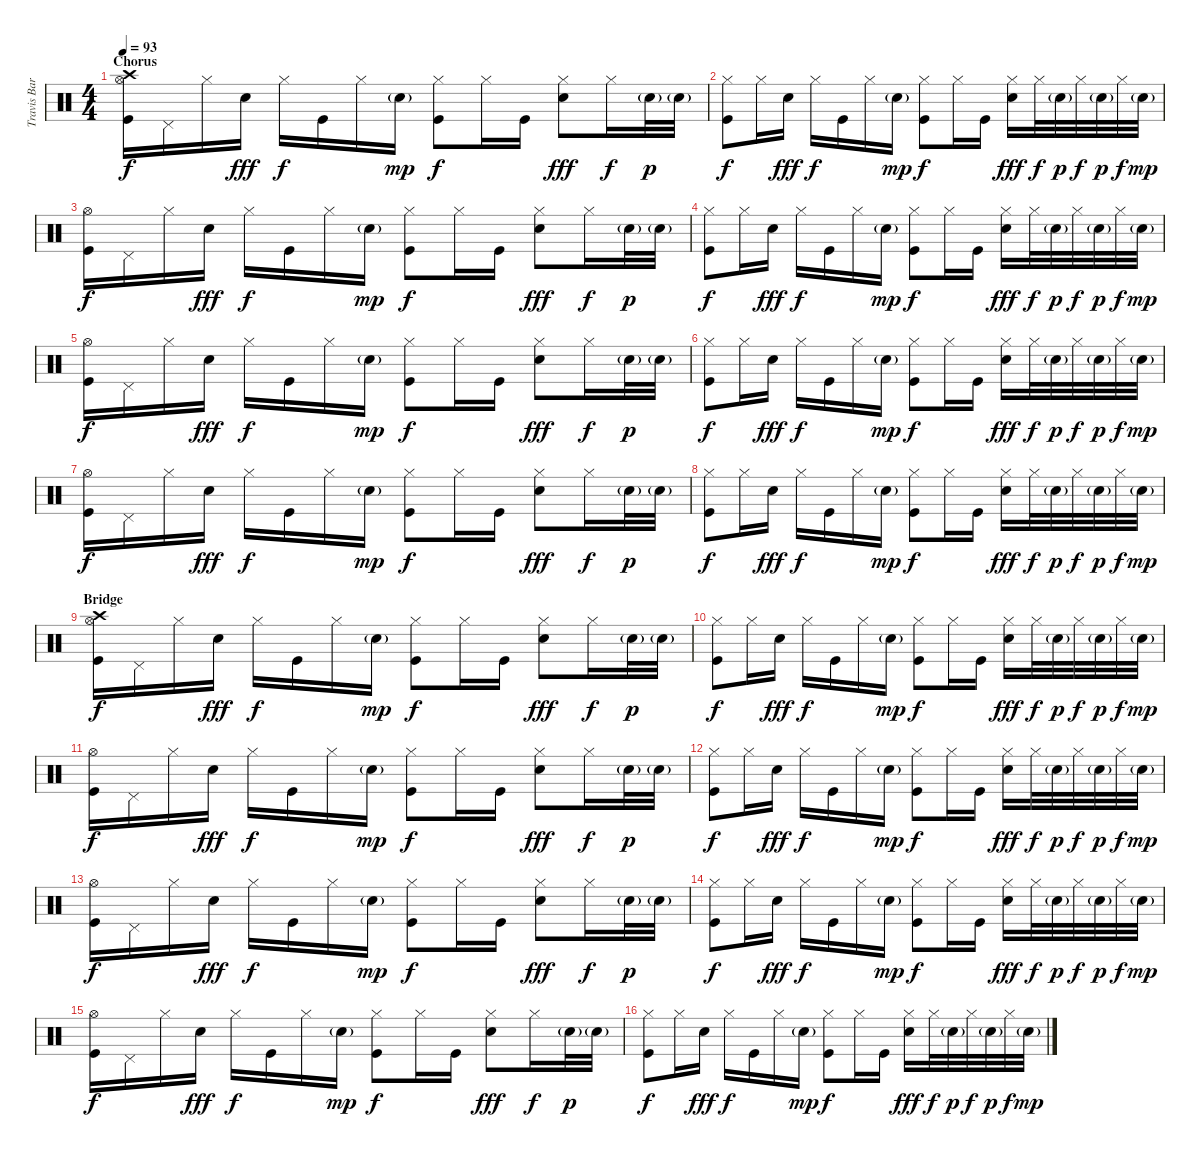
\track ("Travis Barker" "Travis Bar") {instrument percussion}
\staff {score}
\articulation defaults
\ts (4 4)
\section ("" "Chorus")
\tempo 93
\clef neutral
\ks c
("Hi-Hat (open)" "Crash high (hit)" "Kick (hit)").16{dy f} "Pedal Hi-Hat (hit)".16 "Hi-Hat (closed)".16 "Electric Snare (hit)".16{dy fff} "Hi-Hat (closed)".16{dy f} "Kick (hit)".16 "Hi-Hat (closed)".16 "Electric Snare (hit)"{g}.16{dy mp} ("Hi-Hat (closed)" "Kick (hit)").8{dy f} "Hi-Hat (closed)".16 "Kick (hit)".16 ("Hi-Hat (closed)" "Electric Snare (hit)").8{dy fff} "Hi-Hat (closed)".16{dy f} "Electric Snare (hit)"{g}.32{dy p} "Electric Snare (hit)"{g}.32 |
("Hi-Hat (closed)" "Kick (hit)").8{dy f} "Hi-Hat (closed)".16 "Electric Snare (hit)".16{dy fff} "Hi-Hat (closed)".16{dy f} "Kick (hit)".16 "Hi-Hat (closed)".16 "Electric Snare (hit)"{g}.16{dy mp} ("Hi-Hat (closed)" "Kick (hit)").8{dy f} "Hi-Hat (closed)".16 "Kick (hit)".16 ("Hi-Hat (closed)" "Electric Snare (hit)").16{dy fff} "Hi-Hat (closed)".32{dy f} "Electric Snare (hit)"{g}.32{dy p} "Hi-Hat (closed)".32{dy f} "Electric Snare (hit)"{g}.32{dy p} "Hi-Hat (closed)".32{dy f} "Electric Snare (hit)"{g}.32{dy mp} |
("Hi-Hat (open)" "Kick (hit)").16{dy f} "Pedal Hi-Hat (hit)".16 "Hi-Hat (closed)".16 "Electric Snare (hit)".16{dy fff} "Hi-Hat (closed)".16{dy f} "Kick (hit)".16 "Hi-Hat (closed)".16 "Electric Snare (hit)"{g}.16{dy mp} ("Hi-Hat (closed)" "Kick (hit)").8{dy f} "Hi-Hat (closed)".16 "Kick (hit)".16 ("Hi-Hat (closed)" "Electric Snare (hit)").8{dy fff} "Hi-Hat (closed)".16{dy f} "Electric Snare (hit)"{g}.32{dy p} "Electric Snare (hit)"{g}.32 |
("Hi-Hat (closed)" "Kick (hit)").8{dy f} "Hi-Hat (closed)".16 "Electric Snare (hit)".16{dy fff} "Hi-Hat (closed)".16{dy f} "Kick (hit)".16 "Hi-Hat (closed)".16 "Electric Snare (hit)"{g}.16{dy mp} ("Hi-Hat (closed)" "Kick (hit)").8{dy f} "Hi-Hat (closed)".16 "Kick (hit)".16 ("Hi-Hat (closed)" "Electric Snare (hit)").16{dy fff} "Hi-Hat (closed)".32{dy f} "Electric Snare (hit)"{g}.32{dy p} "Hi-Hat (closed)".32{dy f} "Electric Snare (hit)"{g}.32{dy p} "Hi-Hat (closed)".32{dy f} "Electric Snare (hit)"{g}.32{dy mp} |
("Hi-Hat (open)" "Kick (hit)").16{dy f} "Pedal Hi-Hat (hit)".16 "Hi-Hat (closed)".16 "Electric Snare (hit)".16{dy fff} "Hi-Hat (closed)".16{dy f} "Kick (hit)".16 "Hi-Hat (closed)".16 "Electric Snare (hit)"{g}.16{dy mp} ("Hi-Hat (closed)" "Kick (hit)").8{dy f} "Hi-Hat (closed)".16 "Kick (hit)".16 ("Hi-Hat (closed)" "Electric Snare (hit)").8{dy fff} "Hi-Hat (closed)".16{dy f} "Electric Snare (hit)"{g}.32{dy p} "Electric Snare (hit)"{g}.32 |
("Hi-Hat (closed)" "Kick (hit)").8{dy f} "Hi-Hat (closed)".16 "Electric Snare (hit)".16{dy fff} "Hi-Hat (closed)".16{dy f} "Kick (hit)".16 "Hi-Hat (closed)".16 "Electric Snare (hit)"{g}.16{dy mp} ("Hi-Hat (closed)" "Kick (hit)").8{dy f} "Hi-Hat (closed)".16 "Kick (hit)".16 ("Hi-Hat (closed)" "Electric Snare (hit)").16{dy fff} "Hi-Hat (closed)".32{dy f} "Electric Snare (hit)"{g}.32{dy p} "Hi-Hat (closed)".32{dy f} "Electric Snare (hit)"{g}.32{dy p} "Hi-Hat (closed)".32{dy f} "Electric Snare (hit)"{g}.32{dy mp} |
("Hi-Hat (open)" "Kick (hit)").16{dy f} "Pedal Hi-Hat (hit)".16 "Hi-Hat (closed)".16 "Electric Snare (hit)".16{dy fff} "Hi-Hat (closed)".16{dy f} "Kick (hit)".16 "Hi-Hat (closed)".16 "Electric Snare (hit)"{g}.16{dy mp} ("Hi-Hat (closed)" "Kick (hit)").8{dy f} "Hi-Hat (closed)".16 "Kick (hit)".16 ("Hi-Hat (closed)" "Electric Snare (hit)").8{dy fff} "Hi-Hat (closed)".16{dy f} "Electric Snare (hit)"{g}.32{dy p} "Electric Snare (hit)"{g}.32 |
("Hi-Hat (closed)" "Kick (hit)").8{dy f} "Hi-Hat (closed)".16 "Electric Snare (hit)".16{dy fff} "Hi-Hat (closed)".16{dy f} "Kick (hit)".16 "Hi-Hat (closed)".16 "Electric Snare (hit)"{g}.16{dy mp} ("Hi-Hat (closed)" "Kick (hit)").8{dy f} "Hi-Hat (closed)".16 "Kick (hit)".16 ("Hi-Hat (closed)" "Electric Snare (hit)").16{dy fff} "Hi-Hat (closed)".32{dy f} "Electric Snare (hit)"{g}.32{dy p} "Hi-Hat (closed)".32{dy f} "Electric Snare (hit)"{g}.32{dy p} "Hi-Hat (closed)".32{dy f} "Electric Snare (hit)"{g}.32{dy mp} |
\section ("" "Bridge")
("Hi-Hat (open)" "Crash high (hit)" "Kick (hit)").16{dy f} "Pedal Hi-Hat (hit)".16 "Hi-Hat (closed)".16 "Electric Snare (hit)".16{dy fff} "Hi-Hat (closed)".16{dy f} "Kick (hit)".16 "Hi-Hat (closed)".16 "Electric Snare (hit)"{g}.16{dy mp} ("Hi-Hat (closed)" "Kick (hit)").8{dy f} "Hi-Hat (closed)".16 "Kick (hit)".16 ("Hi-Hat (closed)" "Electric Snare (hit)").8{dy fff} "Hi-Hat (closed)".16{dy f} "Electric Snare (hit)"{g}.32{dy p} "Electric Snare (hit)"{g}.32 |
("Hi-Hat (closed)" "Kick (hit)").8{dy f} "Hi-Hat (closed)".16 "Electric Snare (hit)".16{dy fff} "Hi-Hat (closed)".16{dy f} "Kick (hit)".16 "Hi-Hat (closed)".16 "Electric Snare (hit)"{g}.16{dy mp} ("Hi-Hat (closed)" "Kick (hit)").8{dy f} "Hi-Hat (closed)".16 "Kick (hit)".16 ("Hi-Hat (closed)" "Electric Snare (hit)").16{dy fff} "Hi-Hat (closed)".32{dy f} "Electric Snare (hit)"{g}.32{dy p} "Hi-Hat (closed)".32{dy f} "Electric Snare (hit)"{g}.32{dy p} "Hi-Hat (closed)".32{dy f} "Electric Snare (hit)"{g}.32{dy mp} |
("Hi-Hat (open)" "Kick (hit)").16{dy f} "Pedal Hi-Hat (hit)".16 "Hi-Hat (closed)".16 "Electric Snare (hit)".16{dy fff} "Hi-Hat (closed)".16{dy f} "Kick (hit)".16 "Hi-Hat (closed)".16 "Electric Snare (hit)"{g}.16{dy mp} ("Hi-Hat (closed)" "Kick (hit)").8{dy f} "Hi-Hat (closed)".16 "Kick (hit)".16 ("Hi-Hat (closed)" "Electric Snare (hit)").8{dy fff} "Hi-Hat (closed)".16{dy f} "Electric Snare (hit)"{g}.32{dy p} "Electric Snare (hit)"{g}.32 |
("Hi-Hat (closed)" "Kick (hit)").8{dy f} "Hi-Hat (closed)".16 "Electric Snare (hit)".16{dy fff} "Hi-Hat (closed)".16{dy f} "Kick (hit)".16 "Hi-Hat (closed)".16 "Electric Snare (hit)"{g}.16{dy mp} ("Hi-Hat (closed)" "Kick (hit)").8{dy f} "Hi-Hat (closed)".16 "Kick (hit)".16 ("Hi-Hat (closed)" "Electric Snare (hit)").16{dy fff} "Hi-Hat (closed)".32{dy f} "Electric Snare (hit)"{g}.32{dy p} "Hi-Hat (closed)".32{dy f} "Electric Snare (hit)"{g}.32{dy p} "Hi-Hat (closed)".32{dy f} "Electric Snare (hit)"{g}.32{dy mp} |
("Hi-Hat (open)" "Kick (hit)").16{dy f} "Pedal Hi-Hat (hit)".16 "Hi-Hat (closed)".16 "Electric Snare (hit)".16{dy fff} "Hi-Hat (closed)".16{dy f} "Kick (hit)".16 "Hi-Hat (closed)".16 "Electric Snare (hit)"{g}.16{dy mp} ("Hi-Hat (closed)" "Kick (hit)").8{dy f} "Hi-Hat (closed)".16 "Kick (hit)".16 ("Hi-Hat (closed)" "Electric Snare (hit)").8{dy fff} "Hi-Hat (closed)".16{dy f} "Electric Snare (hit)"{g}.32{dy p} "Electric Snare (hit)"{g}.32 |
("Hi-Hat (closed)" "Kick (hit)").8{dy f} "Hi-Hat (closed)".16 "Electric Snare (hit)".16{dy fff} "Hi-Hat (closed)".16{dy f} "Kick (hit)".16 "Hi-Hat (closed)".16 "Electric Snare (hit)"{g}.16{dy mp} ("Hi-Hat (closed)" "Kick (hit)").8{dy f} "Hi-Hat (closed)".16 "Kick (hit)".16 ("Hi-Hat (closed)" "Electric Snare (hit)").16{dy fff} "Hi-Hat (closed)".32{dy f} "Electric Snare (hit)"{g}.32{dy p} "Hi-Hat (closed)".32{dy f} "Electric Snare (hit)"{g}.32{dy p} "Hi-Hat (closed)".32{dy f} "Electric Snare (hit)"{g}.32{dy mp} |
("Hi-Hat (open)" "Kick (hit)").16{dy f} "Pedal Hi-Hat (hit)".16 "Hi-Hat (closed)".16 "Electric Snare (hit)".16{dy fff} "Hi-Hat (closed)".16{dy f} "Kick (hit)".16 "Hi-Hat (closed)".16 "Electric Snare (hit)"{g}.16{dy mp} ("Hi-Hat (closed)" "Kick (hit)").8{dy f} "Hi-Hat (closed)".16 "Kick (hit)".16 ("Hi-Hat (closed)" "Electric Snare (hit)").8{dy fff} "Hi-Hat (closed)".16{dy f} "Electric Snare (hit)"{g}.32{dy p} "Electric Snare (hit)"{g}.32 |
("Hi-Hat (closed)" "Kick (hit)").8{dy f} "Hi-Hat (closed)".16 "Electric Snare (hit)".16{dy fff} "Hi-Hat (closed)".16{dy f} "Kick (hit)".16 "Hi-Hat (closed)".16 "Electric Snare (hit)"{g}.16{dy mp} ("Hi-Hat (closed)" "Kick (hit)").8{dy f} "Hi-Hat (closed)".16 "Kick (hit)".16 ("Hi-Hat (closed)" "Electric Snare (hit)").16{dy fff} "Hi-Hat (closed)".32{dy f} "Electric Snare (hit)"{g}.32{dy p} "Hi-Hat (closed)".32{dy f} "Electric Snare (hit)"{g}.32{dy p} "Hi-Hat (closed)".32{dy f} "Electric Snare (hit)"{g}.32{dy mp}
